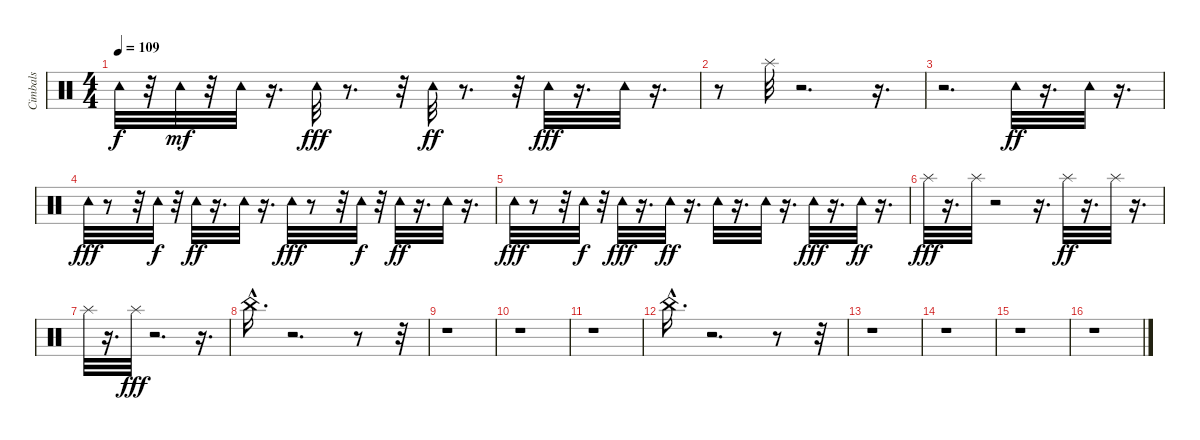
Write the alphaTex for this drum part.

\track ("Cimbals" "Cimbals") {instrument percussion}
\staff {score}
\articulation defaults
\ts (4 4)
\tempo 109
\clef neutral
\ks c "Tambourine (hit)".32{dy f}
r.32 "Tambourine (hit)".32{dy mf} r.32 "Tambourine (hit)".32 r.16{d} "Tambourine (hit)".32{dy fff} r.8{d} r.32 "Tambourine (hit)".32{dy ff} r.8{d} r.32 "Tambourine (hit)".32{dy fff} r.16{d} "Tambourine (hit)".32 r.16{d} |
r.8 "Splash (hit)".32 r.2{d} r.16{d} |
r.2{d} "Tambourine (hit)".32{dy ff} r.16{d} "Tambourine (hit)".32 r.16{d} |
"Tambourine (hit)".32{dy fff} r.8 r.32 "Tambourine (hit)".32{dy f} r.32 "Tambourine (hit)".32{dy ff} r.16{d} "Tambourine (hit)".32 r.16{d} "Tambourine (hit)".32{dy fff} r.8 r.32 "Tambourine (hit)".32{dy f} r.32 "Tambourine (hit)".32{dy ff} r.16{d} "Tambourine (hit)".32 r.16{d} |
"Tambourine (hit)".32{dy fff} r.8 r.32 "Tambourine (hit)".32{dy f} r.32 "Tambourine (hit)".32{dy fff} r.16{d} "Tambourine (hit)".32{dy ff} r.16{d} "Tambourine (hit)".32 r.16{d} "Tambourine (hit)".32 r.16{d} "Tambourine (hit)".32{dy fff} r.16{d} "Tambourine (hit)".32{dy ff} r.16{d} |
"Splash (hit)".32{dy fff} r.16{d} "Splash (hit)".32 r.2 r.16{d} "Splash (hit)".32{dy ff} r.16{d} "Splash (hit)".32 r.16{d} |
"Splash (hit)".32 r.16{d} "Splash (hit)".32{dy fff} r.2{d} r.16{d} |
"China (choke)"{hac}.16{d} r.2{d} r.8 r.32 |
r.1 |
r.1 |
r.1 |
"China (choke)"{hac}.16{d} r.2{d} r.8 r.32 |
r.1 |
r.1 |
r.1 |
r.1
